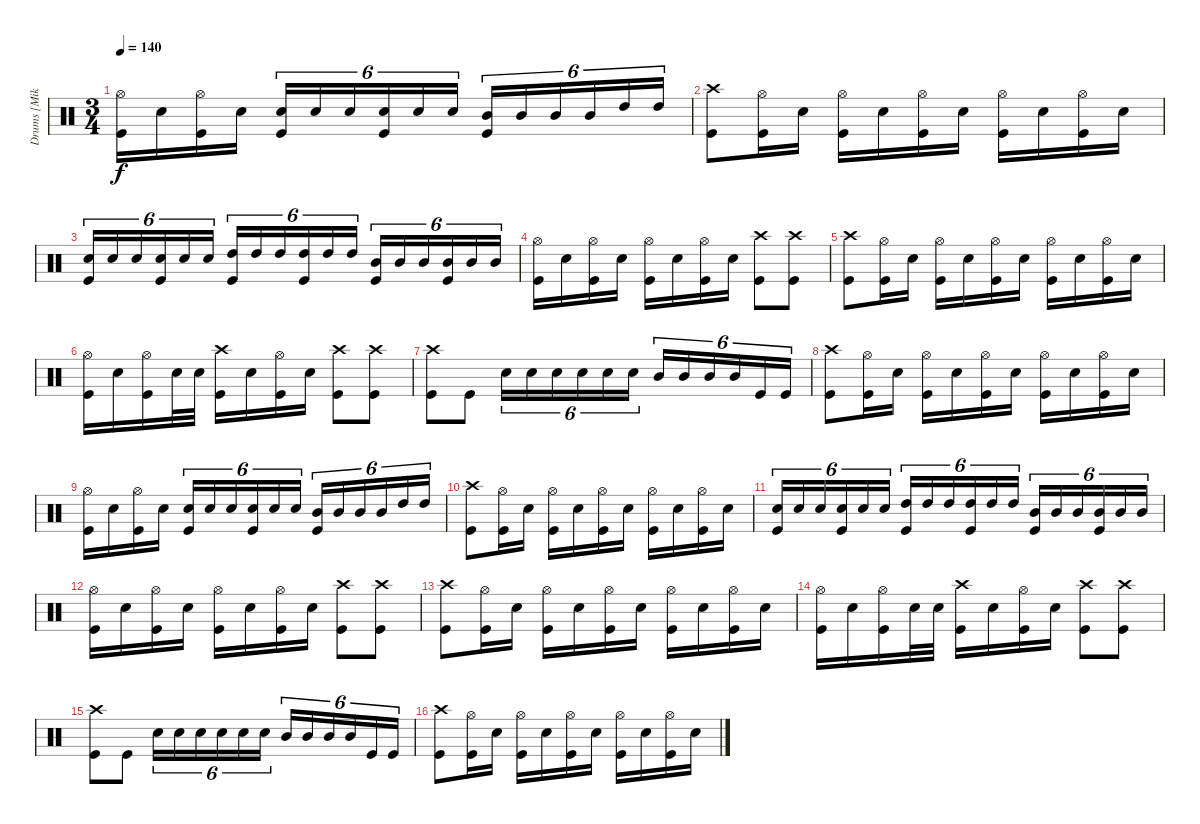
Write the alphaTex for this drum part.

\track ("Drums [Mike Smith]" "Drums [Mik") {instrument percussion}
\staff {score}
\articulation defaults
\ts (3 4)
\tempo 140
\clef neutral
\ks c
("Hi-Hat (open)" "Kick (hit)").16{dy f} "Electric Snare (hit)".16 ("Hi-Hat (open)" "Kick (hit)").16 "Electric Snare (hit)".16 ("Electric Snare (hit)" "Kick (hit)").16{tu (6 4)} "Electric Snare (hit)".16{tu (6 4)} "Electric Snare (hit)".16{tu (6 4)} ("Electric Snare (hit)" "Kick (hit)").16{tu (6 4)} "Electric Snare (hit)".16{tu (6 4)} "Electric Snare (hit)".16{tu (6 4)} ("Mid Tom (hit)" "Kick (hit)").16{tu (6 4)} "Mid Tom (hit)".16{tu (6 4)} "Mid Tom (hit)".16{tu (6 4)} "Mid Tom (hit)".16{tu (6 4)} "High Tom (hit)".16{tu (6 4)} "High Tom (hit)".16{tu (6 4)} |
("Crash high (hit)" "Kick (hit)").8 ("Hi-Hat (open)" "Kick (hit)").16 "Electric Snare (hit)".16 ("Hi-Hat (open)" "Kick (hit)").16 "Electric Snare (hit)".16 ("Hi-Hat (open)" "Kick (hit)").16 "Electric Snare (hit)".16 ("Hi-Hat (open)" "Kick (hit)").16 "Electric Snare (hit)".16 ("Hi-Hat (open)" "Kick (hit)").16 "Electric Snare (hit)".16 |
("Electric Snare (hit)" "Kick (hit)").16{tu (6 4)} "Electric Snare (hit)".16{tu (6 4)} "Electric Snare (hit)".16{tu (6 4)} ("Electric Snare (hit)" "Kick (hit)").16{tu (6 4)} "Electric Snare (hit)".16{tu (6 4)} "Electric Snare (hit)".16{tu (6 4)} ("High Tom (hit)" "Kick (hit)").16{tu (6 4)} "High Tom (hit)".16{tu (6 4)} "High Tom (hit)".16{tu (6 4)} ("High Tom (hit)" "Kick (hit)").16{tu (6 4)} "High Tom (hit)".16{tu (6 4)} "High Tom (hit)".16{tu (6 4)} ("Mid Tom (hit)" "Kick (hit)").16{tu (6 4)} "Mid Tom (hit)".16{tu (6 4)} "Mid Tom (hit)".16{tu (6 4)} ("Mid Tom (hit)" "Kick (hit)").16{tu (6 4)} "Mid Tom (hit)".16{tu (6 4)} "Mid Tom (hit)".16{tu (6 4)} |
("Hi-Hat (open)" "Kick (hit)").16 "Electric Snare (hit)".16 ("Hi-Hat (open)" "Kick (hit)").16 "Electric Snare (hit)".16 ("Hi-Hat (open)" "Kick (hit)").16 "Electric Snare (hit)".16 ("Hi-Hat (open)" "Kick (hit)").16 "Electric Snare (hit)".16 ("Crash high (hit)" "Kick (hit)").8 ("Crash high (hit)" "Kick (hit)").8 |
("Crash high (hit)" "Kick (hit)").8 ("Hi-Hat (open)" "Kick (hit)").16 "Electric Snare (hit)".16 ("Hi-Hat (open)" "Kick (hit)").16 "Electric Snare (hit)".16 ("Hi-Hat (open)" "Kick (hit)").16 "Electric Snare (hit)".16 ("Hi-Hat (open)" "Kick (hit)").16 "Electric Snare (hit)".16 ("Hi-Hat (open)" "Kick (hit)").16 "Electric Snare (hit)".16 |
("Hi-Hat (open)" "Kick (hit)").16 "Electric Snare (hit)".16 ("Hi-Hat (open)" "Kick (hit)").16 "Electric Snare (hit)".32 "Electric Snare (hit)".32 ("Crash high (hit)" "Kick (hit)").16 "Electric Snare (hit)".16 ("Hi-Hat (open)" "Kick (hit)").16 "Electric Snare (hit)".16 ("Crash high (hit)" "Kick (hit)").8 ("Crash high (hit)" "Kick (hit)").8 |
("Crash high (hit)" "Kick (hit)").8 "Kick (hit)".8 "Electric Snare (hit)".16{tu (6 4)} "Electric Snare (hit)".16{tu (6 4)} "Electric Snare (hit)".16{tu (6 4)} "Electric Snare (hit)".16{tu (6 4)} "Electric Snare (hit)".16{tu (6 4)} "Electric Snare (hit)".16{tu (6 4)} "Mid Tom (hit)".16{tu (6 4)} "Mid Tom (hit)".16{tu (6 4)} "Mid Tom (hit)".16{tu (6 4)} "Mid Tom (hit)".16{tu (6 4)} "Kick (hit)".16{tu (6 4)} "Kick (hit)".16{tu (6 4)} |
("Crash high (hit)" "Kick (hit)").8 ("Hi-Hat (open)" "Kick (hit)").16 "Electric Snare (hit)".16 ("Hi-Hat (open)" "Kick (hit)").16 "Electric Snare (hit)".16 ("Hi-Hat (open)" "Kick (hit)").16 "Electric Snare (hit)".16 ("Hi-Hat (open)" "Kick (hit)").16 "Electric Snare (hit)".16 ("Hi-Hat (open)" "Kick (hit)").16 "Electric Snare (hit)".16 |
("Hi-Hat (open)" "Kick (hit)").16 "Electric Snare (hit)".16 ("Hi-Hat (open)" "Kick (hit)").16 "Electric Snare (hit)".16 ("Electric Snare (hit)" "Kick (hit)").16{tu (6 4)} "Electric Snare (hit)".16{tu (6 4)} "Electric Snare (hit)".16{tu (6 4)} ("Electric Snare (hit)" "Kick (hit)").16{tu (6 4)} "Electric Snare (hit)".16{tu (6 4)} "Electric Snare (hit)".16{tu (6 4)} ("Mid Tom (hit)" "Kick (hit)").16{tu (6 4)} "Mid Tom (hit)".16{tu (6 4)} "Mid Tom (hit)".16{tu (6 4)} "Mid Tom (hit)".16{tu (6 4)} "High Tom (hit)".16{tu (6 4)} "High Tom (hit)".16{tu (6 4)} |
("Crash high (hit)" "Kick (hit)").8 ("Hi-Hat (open)" "Kick (hit)").16 "Electric Snare (hit)".16 ("Hi-Hat (open)" "Kick (hit)").16 "Electric Snare (hit)".16 ("Hi-Hat (open)" "Kick (hit)").16 "Electric Snare (hit)".16 ("Hi-Hat (open)" "Kick (hit)").16 "Electric Snare (hit)".16 ("Hi-Hat (open)" "Kick (hit)").16 "Electric Snare (hit)".16 |
("Electric Snare (hit)" "Kick (hit)").16{tu (6 4)} "Electric Snare (hit)".16{tu (6 4)} "Electric Snare (hit)".16{tu (6 4)} ("Electric Snare (hit)" "Kick (hit)").16{tu (6 4)} "Electric Snare (hit)".16{tu (6 4)} "Electric Snare (hit)".16{tu (6 4)} ("High Tom (hit)" "Kick (hit)").16{tu (6 4)} "High Tom (hit)".16{tu (6 4)} "High Tom (hit)".16{tu (6 4)} ("High Tom (hit)" "Kick (hit)").16{tu (6 4)} "High Tom (hit)".16{tu (6 4)} "High Tom (hit)".16{tu (6 4)} ("Mid Tom (hit)" "Kick (hit)").16{tu (6 4)} "Mid Tom (hit)".16{tu (6 4)} "Mid Tom (hit)".16{tu (6 4)} ("Mid Tom (hit)" "Kick (hit)").16{tu (6 4)} "Mid Tom (hit)".16{tu (6 4)} "Mid Tom (hit)".16{tu (6 4)} |
("Hi-Hat (open)" "Kick (hit)").16 "Electric Snare (hit)".16 ("Hi-Hat (open)" "Kick (hit)").16 "Electric Snare (hit)".16 ("Hi-Hat (open)" "Kick (hit)").16 "Electric Snare (hit)".16 ("Hi-Hat (open)" "Kick (hit)").16 "Electric Snare (hit)".16 ("Crash high (hit)" "Kick (hit)").8 ("Crash high (hit)" "Kick (hit)").8 |
("Crash high (hit)" "Kick (hit)").8 ("Hi-Hat (open)" "Kick (hit)").16 "Electric Snare (hit)".16 ("Hi-Hat (open)" "Kick (hit)").16 "Electric Snare (hit)".16 ("Hi-Hat (open)" "Kick (hit)").16 "Electric Snare (hit)".16 ("Hi-Hat (open)" "Kick (hit)").16 "Electric Snare (hit)".16 ("Hi-Hat (open)" "Kick (hit)").16 "Electric Snare (hit)".16 |
("Hi-Hat (open)" "Kick (hit)").16 "Electric Snare (hit)".16 ("Hi-Hat (open)" "Kick (hit)").16 "Electric Snare (hit)".32 "Electric Snare (hit)".32 ("Crash high (hit)" "Kick (hit)").16 "Electric Snare (hit)".16 ("Hi-Hat (open)" "Kick (hit)").16 "Electric Snare (hit)".16 ("Crash high (hit)" "Kick (hit)").8 ("Crash high (hit)" "Kick (hit)").8 |
("Crash high (hit)" "Kick (hit)").8 "Kick (hit)".8 "Electric Snare (hit)".16{tu (6 4)} "Electric Snare (hit)".16{tu (6 4)} "Electric Snare (hit)".16{tu (6 4)} "Electric Snare (hit)".16{tu (6 4)} "Electric Snare (hit)".16{tu (6 4)} "Electric Snare (hit)".16{tu (6 4)} "Mid Tom (hit)".16{tu (6 4)} "Mid Tom (hit)".16{tu (6 4)} "Mid Tom (hit)".16{tu (6 4)} "Mid Tom (hit)".16{tu (6 4)} "Kick (hit)".16{tu (6 4)} "Kick (hit)".16{tu (6 4)} |
("Crash high (hit)" "Kick (hit)").8 ("Hi-Hat (open)" "Kick (hit)").16 "Electric Snare (hit)".16 ("Hi-Hat (open)" "Kick (hit)").16 "Electric Snare (hit)".16 ("Hi-Hat (open)" "Kick (hit)").16 "Electric Snare (hit)".16 ("Hi-Hat (open)" "Kick (hit)").16 "Electric Snare (hit)".16 ("Hi-Hat (open)" "Kick (hit)").16 "Electric Snare (hit)".16
